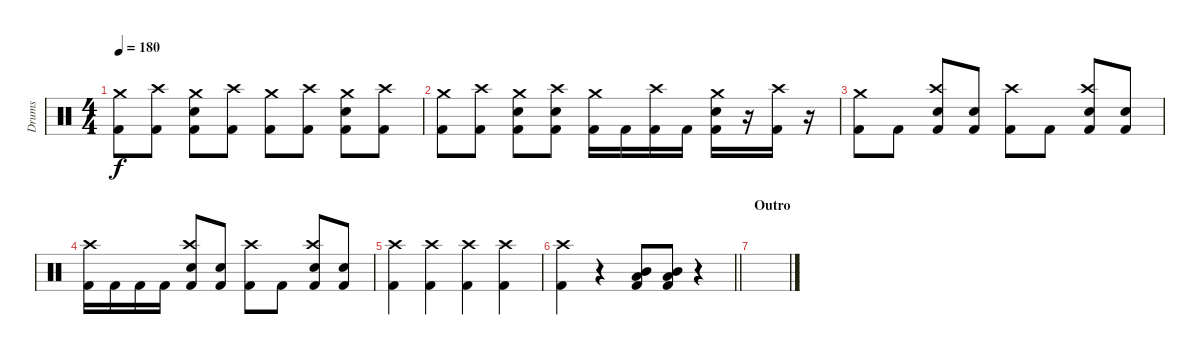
\track ("Drums" "Drums") {instrument percussion}
\staff {score}
\articulation defaults
\ts (4 4)
\tempo 180
\clef neutral
\ks c
("Crash medium (hit)" "Kick (hit) 2").8{dy f} ("Crash high (hit)" "Kick (hit) 2").8 ("Crash medium (hit)" "Electric Snare (hit)" "Kick (hit) 2").8 ("Crash high (hit)" "Kick (hit) 2").8 ("Crash medium (hit)" "Kick (hit) 2").8 ("Crash high (hit)" "Kick (hit) 2").8 ("Crash medium (hit)" "Electric Snare (hit)" "Kick (hit) 2").8 ("Crash high (hit)" "Kick (hit) 2").8 |
("Crash medium (hit)" "Kick (hit) 2").8 ("Crash high (hit)" "Kick (hit) 2").8 ("Crash medium (hit)" "Electric Snare (hit)" "Kick (hit) 2").8 ("Crash high (hit)" "Electric Snare (hit)" "Kick (hit) 2").8 ("Crash medium (hit)" "Kick (hit) 2").16 "Kick (hit) 2".16 ("Crash high (hit)" "Kick (hit) 2").16 "Kick (hit) 2".16 ("Crash medium (hit)" "Electric Snare (hit)" "Kick (hit) 2").16 r.16 ("Crash high (hit)" "Kick (hit) 2").16 r.16 |
("Crash medium (hit)" "Kick (hit) 2").8 "Kick (hit) 2".8 ("Crash high (hit)" "Electric Snare (hit)" "Kick (hit) 2").8 ("Electric Snare (hit)" "Kick (hit) 2").8 ("Crash high (hit)" "Kick (hit) 2").8 "Kick (hit) 2".8 ("Crash high (hit)" "Electric Snare (hit)" "Kick (hit) 2").8 ("Electric Snare (hit)" "Kick (hit) 2").8 |
("Crash high (hit)" "Kick (hit) 2").16 "Kick (hit) 2".16 "Kick (hit) 2".16 "Kick (hit) 2".16 ("Crash high (hit)" "Electric Snare (hit)" "Kick (hit) 2").8 ("Electric Snare (hit)" "Kick (hit) 2").8 ("Crash high (hit)" "Kick (hit) 2").8 "Kick (hit) 2".8 ("Crash high (hit)" "Electric Snare (hit)" "Kick (hit) 2").8 ("Electric Snare (hit)" "Kick (hit) 2").8 |
("Crash high (hit)" "Kick (hit) 2").4 ("Crash high (hit)" "Kick (hit) 2").4 ("Crash high (hit)" "Kick (hit) 2").4 ("Crash high (hit)" "Kick (hit) 2").4 |
\barLineRight lightlight
("Crash high (hit)" "Kick (hit) 2").4 r.4 ("Mid Tom (hit)" "Low Tom (hit)" "Kick (hit) 2").8 ("Mid Tom (hit)" "Low Tom (hit)" "Kick (hit) 2").8 r.4 |
\section ("" "Outro")
